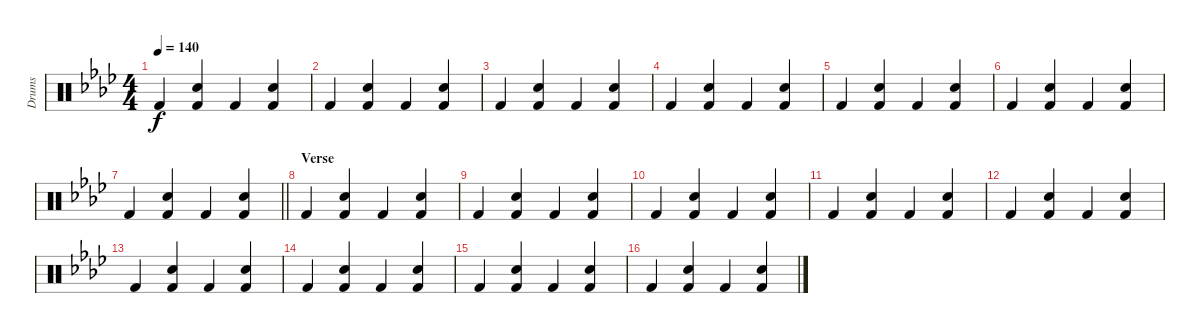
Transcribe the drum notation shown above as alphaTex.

\track ("Drums" "Drums") {instrument percussion}
\staff {score}
\articulation defaults
\ts (4 4)
\tempo 140
\clef neutral
\ks ab "Kick (hit) 2".4{dy f}
("Electric Snare (hit)" "Kick (hit) 2").4 "Kick (hit) 2".4 ("Electric Snare (hit)" "Kick (hit) 2").4 |
"Kick (hit) 2".4 ("Electric Snare (hit)" "Kick (hit) 2").4 "Kick (hit) 2".4 ("Electric Snare (hit)" "Kick (hit) 2").4 |
"Kick (hit) 2".4 ("Electric Snare (hit)" "Kick (hit) 2").4 "Kick (hit) 2".4 ("Electric Snare (hit)" "Kick (hit) 2").4 |
"Kick (hit) 2".4 ("Electric Snare (hit)" "Kick (hit) 2").4 "Kick (hit) 2".4 ("Electric Snare (hit)" "Kick (hit) 2").4 |
"Kick (hit) 2".4 ("Electric Snare (hit)" "Kick (hit) 2").4 "Kick (hit) 2".4 ("Electric Snare (hit)" "Kick (hit) 2").4 |
"Kick (hit) 2".4 ("Electric Snare (hit)" "Kick (hit) 2").4 "Kick (hit) 2".4 ("Electric Snare (hit)" "Kick (hit) 2").4 |
\barLineRight lightlight "Kick (hit) 2".4
("Electric Snare (hit)" "Kick (hit) 2").4 "Kick (hit) 2".4 ("Electric Snare (hit)" "Kick (hit) 2").4 |
\section ("" "Verse")
"Kick (hit) 2".4 ("Electric Snare (hit)" "Kick (hit) 2").4 "Kick (hit) 2".4 ("Electric Snare (hit)" "Kick (hit) 2").4 |
"Kick (hit) 2".4 ("Electric Snare (hit)" "Kick (hit) 2").4 "Kick (hit) 2".4 ("Electric Snare (hit)" "Kick (hit) 2").4 |
"Kick (hit) 2".4 ("Electric Snare (hit)" "Kick (hit) 2").4 "Kick (hit) 2".4 ("Electric Snare (hit)" "Kick (hit) 2").4 |
"Kick (hit) 2".4 ("Electric Snare (hit)" "Kick (hit) 2").4 "Kick (hit) 2".4 ("Electric Snare (hit)" "Kick (hit) 2").4 |
"Kick (hit) 2".4 ("Electric Snare (hit)" "Kick (hit) 2").4 "Kick (hit) 2".4 ("Electric Snare (hit)" "Kick (hit) 2").4 |
"Kick (hit) 2".4 ("Electric Snare (hit)" "Kick (hit) 2").4 "Kick (hit) 2".4 ("Electric Snare (hit)" "Kick (hit) 2").4 |
"Kick (hit) 2".4 ("Electric Snare (hit)" "Kick (hit) 2").4 "Kick (hit) 2".4 ("Electric Snare (hit)" "Kick (hit) 2").4 |
"Kick (hit) 2".4 ("Electric Snare (hit)" "Kick (hit) 2").4 "Kick (hit) 2".4 ("Electric Snare (hit)" "Kick (hit) 2").4 |
"Kick (hit) 2".4 ("Electric Snare (hit)" "Kick (hit) 2").4 "Kick (hit) 2".4 ("Electric Snare (hit)" "Kick (hit) 2").4
